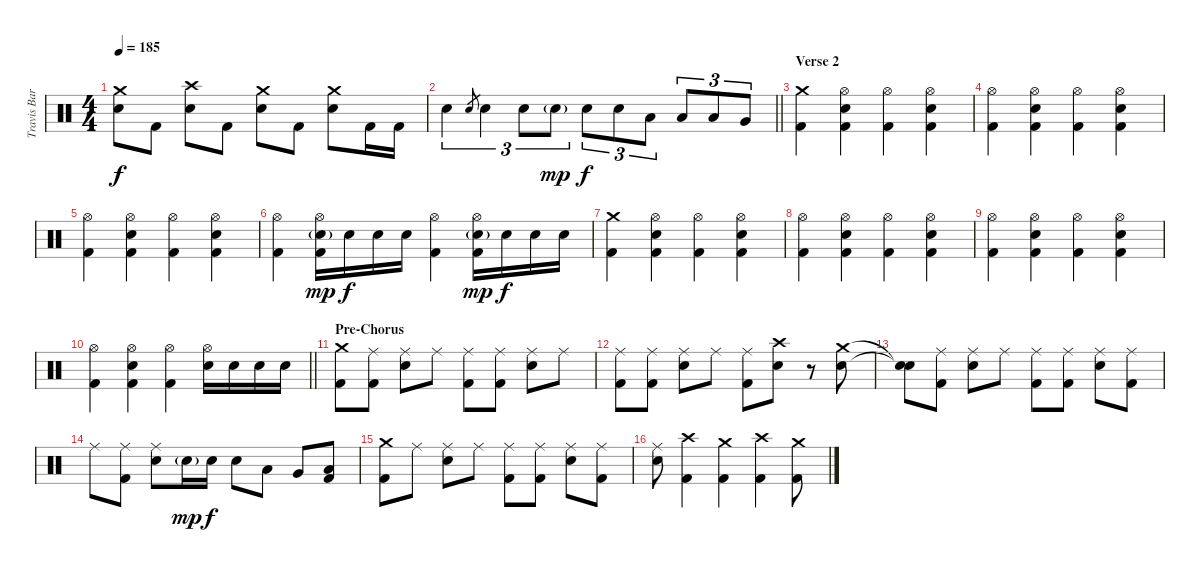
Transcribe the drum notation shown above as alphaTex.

\track ("Travis Barker - Drums" "Travis Bar") {instrument percussion}
\staff {score}
\articulation defaults
\ts (4 4)
\tempo 185
\clef neutral
\ks c
("Crash medium (hit)" "Electric Snare (hit)").8{dy f} "Kick (hit) 2".8 ("Crash high (hit)" "Electric Snare (hit)").8 "Kick (hit) 2".8 ("Crash medium (hit)" "Electric Snare (hit)").8 "Kick (hit) 2".8 ("Crash medium (hit)" "Electric Snare (hit)").8 "Kick (hit) 2".16 "Kick (hit) 2".16 |
\barLineRight lightlight "Electric Snare (hit)".4{tu (3 2)} "Electric Snare (hit)".8{gr} "Electric Snare (hit)".4{tu (3 2)} "Electric Snare (hit)".8{tu (3 2)} "Electric Snare (hit)"{g}.8{tu (3 2) dy mp} "Electric Snare (hit)".8{tu (3 2) dy f} "Electric Snare (hit)".8{tu (3 2)} "Low Tom (hit)".8{tu (3 2)} "Low Tom (hit)".8{tu (3 2)} "Low Tom (hit)".8{tu (3 2)} "Very Low Tom (hit)".8{tu (3 2)}
|
\section ("" "Verse 2")
("Crash medium (hit)" "Kick (hit) 2").4 ("Hi-Hat (open)" "Electric Snare (hit)" "Kick (hit) 2").4 ("Hi-Hat (open)" "Kick (hit) 2").4 ("Hi-Hat (open)" "Electric Snare (hit)" "Kick (hit) 2").4 |
("Hi-Hat (open)" "Kick (hit) 2").4 ("Hi-Hat (open)" "Electric Snare (hit)" "Kick (hit) 2").4 ("Hi-Hat (open)" "Kick (hit) 2").4 ("Hi-Hat (open)" "Electric Snare (hit)" "Kick (hit) 2").4 |
("Hi-Hat (open)" "Kick (hit) 2").4 ("Hi-Hat (open)" "Electric Snare (hit)" "Kick (hit) 2").4 ("Hi-Hat (open)" "Kick (hit) 2").4 ("Hi-Hat (open)" "Electric Snare (hit)" "Kick (hit) 2").4 |
("Hi-Hat (open)" "Kick (hit) 2").4 ("Hi-Hat (open)" "Electric Snare (hit)"{g} "Kick (hit) 2").16{dy mp} "Electric Snare (hit)".16{dy f} "Electric Snare (hit)".16 "Electric Snare (hit)".16 ("Hi-Hat (open)" "Kick (hit) 2").4 ("Hi-Hat (open)" "Electric Snare (hit)"{g} "Kick (hit) 2").16{dy mp} "Electric Snare (hit)".16{dy f} "Electric Snare (hit)".16 "Electric Snare (hit)".16 |
("Crash medium (hit)" "Kick (hit) 2").4 ("Hi-Hat (open)" "Electric Snare (hit)" "Kick (hit) 2").4 ("Hi-Hat (open)" "Kick (hit) 2").4 ("Hi-Hat (open)" "Electric Snare (hit)" "Kick (hit) 2").4 |
("Hi-Hat (open)" "Kick (hit) 2").4 ("Hi-Hat (open)" "Electric Snare (hit)" "Kick (hit) 2").4 ("Hi-Hat (open)" "Kick (hit) 2").4 ("Hi-Hat (open)" "Electric Snare (hit)" "Kick (hit) 2").4 |
("Hi-Hat (open)" "Kick (hit) 2").4 ("Hi-Hat (open)" "Electric Snare (hit)" "Kick (hit) 2").4 ("Hi-Hat (open)" "Kick (hit) 2").4 ("Hi-Hat (open)" "Electric Snare (hit)" "Kick (hit) 2").4 |
\barLineRight lightlight
("Hi-Hat (open)" "Kick (hit) 2").4 ("Hi-Hat (open)" "Electric Snare (hit)" "Kick (hit) 2").4 ("Hi-Hat (open)" "Kick (hit) 2").4 ("Hi-Hat (open)" "Electric Snare (hit)").16 "Electric Snare (hit)".16 "Electric Snare (hit)".16 "Electric Snare (hit)".16 |
\section ("" "Pre-Chorus")
("Crash medium (hit)" "Kick (hit) 2").8 ("Ride (middle)" "Kick (hit) 2").8 ("Ride (middle)" "Electric Snare (hit)").8 "Ride (middle)".8 ("Ride (middle)" "Kick (hit) 2").8 ("Ride (middle)" "Kick (hit) 2").8 ("Ride (middle)" "Electric Snare (hit)").8 "Ride (middle)".8 |
("Ride (middle)" "Kick (hit) 2").8 ("Ride (middle)" "Kick (hit) 2").8 ("Ride (middle)" "Electric Snare (hit)").8 "Ride (middle)".8 ("Ride (middle)" "Kick (hit) 2").8 ("Crash high (hit)" "Electric Snare (hit)").8 r.8 ("Crash medium (hit)" "Electric Snare (hit)").8 |
("Snare (hit)"{t} "Snare (hit)"{t}).8 ("Ride (middle)" "Kick (hit) 2").8 ("Ride (middle)" "Electric Snare (hit)").8 "Ride (middle)".8 ("Ride (middle)" "Kick (hit) 2").8 ("Ride (middle)" "Kick (hit) 2").8 ("Ride (middle)" "Electric Snare (hit)").8 ("Ride (middle)" "Kick (hit) 2").8 |
"Ride (middle)".8 ("Ride (middle)" "Kick (hit) 2").8 ("Ride (middle)" "Electric Snare (hit)").8 "Electric Snare (hit)"{g}.16{dy mp} "Electric Snare (hit)".16{dy f} "Electric Snare (hit)".8 "Low Tom (hit)".8 "Very Low Tom (hit)".8 ("Low Floor Tom (hit)" "Kick (hit) 2").8 |
("Crash medium (hit)" "Kick (hit) 2").8 "Ride (middle)".8 ("Ride (middle)" "Electric Snare (hit)").8 "Ride (middle)".8 ("Ride (middle)" "Kick (hit) 2").8 ("Ride (middle)" "Kick (hit) 2").8 ("Ride (middle)" "Electric Snare (hit)").8 ("Ride (middle)" "Kick (hit) 2").8 |
("Ride (middle)" "Electric Snare (hit)").8 ("Crash high (hit)" "Kick (hit) 2").4 ("Crash medium (hit)" "Kick (hit) 2").4 ("Crash high (hit)" "Kick (hit) 2").4 ("Crash medium (hit)" "Kick (hit) 2").8
